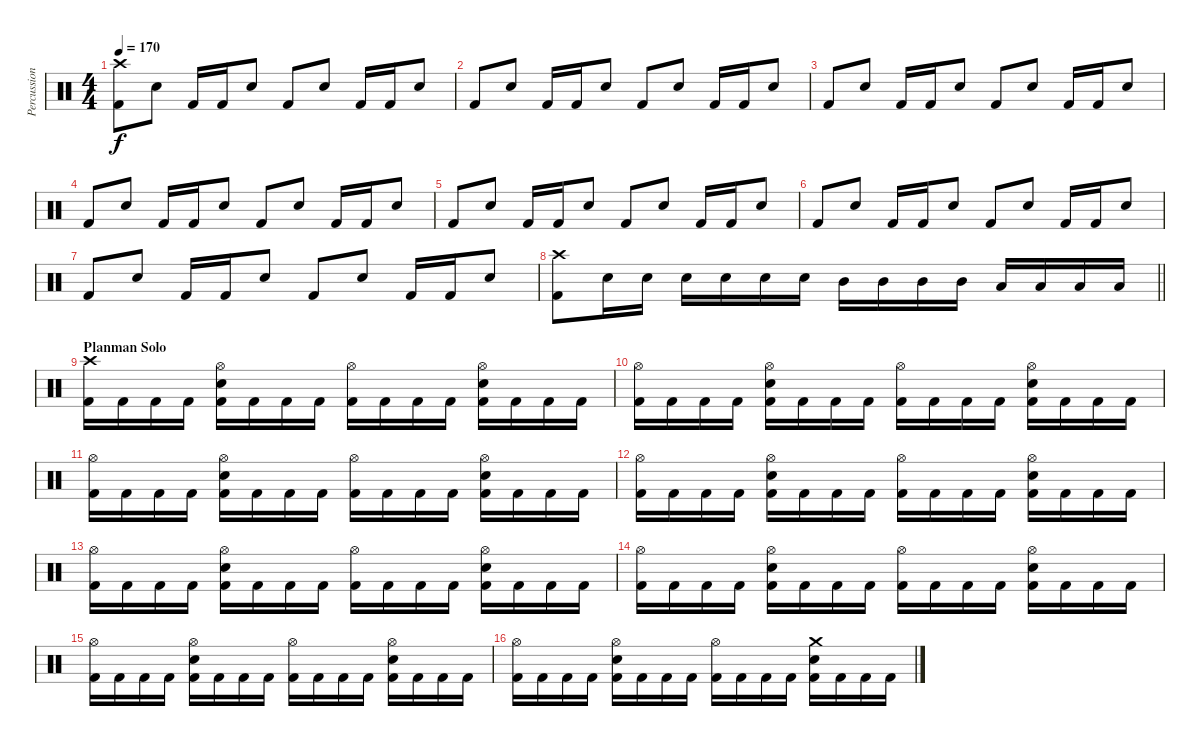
\track ("Percussions" "Percussion") {instrument percussion}
\staff {score}
\articulation defaults
\ts (4 4)
\tempo 170
\clef neutral
\ks c
("Crash high (hit)" "Kick (hit) 2").8{dy f} "Electric Snare (hit)".8 "Kick (hit) 2".16 "Kick (hit) 2".16 "Electric Snare (hit)".8 "Kick (hit) 2".8 "Electric Snare (hit)".8 "Kick (hit) 2".16 "Kick (hit) 2".16 "Electric Snare (hit)".8 |
"Kick (hit) 2".8 "Electric Snare (hit)".8 "Kick (hit) 2".16 "Kick (hit) 2".16 "Electric Snare (hit)".8 "Kick (hit) 2".8 "Electric Snare (hit)".8 "Kick (hit) 2".16 "Kick (hit) 2".16 "Electric Snare (hit)".8 |
"Kick (hit) 2".8 "Electric Snare (hit)".8 "Kick (hit) 2".16 "Kick (hit) 2".16 "Electric Snare (hit)".8 "Kick (hit) 2".8 "Electric Snare (hit)".8 "Kick (hit) 2".16 "Kick (hit) 2".16 "Electric Snare (hit)".8 |
"Kick (hit) 2".8 "Electric Snare (hit)".8 "Kick (hit) 2".16 "Kick (hit) 2".16 "Electric Snare (hit)".8 "Kick (hit) 2".8 "Electric Snare (hit)".8 "Kick (hit) 2".16 "Kick (hit) 2".16 "Electric Snare (hit)".8 |
"Kick (hit) 2".8 "Electric Snare (hit)".8 "Kick (hit) 2".16 "Kick (hit) 2".16 "Electric Snare (hit)".8 "Kick (hit) 2".8 "Electric Snare (hit)".8 "Kick (hit) 2".16 "Kick (hit) 2".16 "Electric Snare (hit)".8 |
"Kick (hit) 2".8 "Electric Snare (hit)".8 "Kick (hit) 2".16 "Kick (hit) 2".16 "Electric Snare (hit)".8 "Kick (hit) 2".8 "Electric Snare (hit)".8 "Kick (hit) 2".16 "Kick (hit) 2".16 "Electric Snare (hit)".8 |
"Kick (hit) 2".8 "Electric Snare (hit)".8 "Kick (hit) 2".16 "Kick (hit) 2".16 "Electric Snare (hit)".8 "Kick (hit) 2".8 "Electric Snare (hit)".8 "Kick (hit) 2".16 "Kick (hit) 2".16 "Electric Snare (hit)".8 |
\barLineRight lightlight
("Crash high (hit)" "Kick (hit) 2").8 "Electric Snare (hit)".16 "Electric Snare (hit)".16 "Electric Snare (hit)".16 "Electric Snare (hit)".16 "Electric Snare (hit)".16 "Electric Snare (hit)".16 "Mid Tom (hit)".16 "Mid Tom (hit)".16 "Mid Tom (hit)".16 "Mid Tom (hit)".16 "Low Tom (hit)".16 "Low Tom (hit)".16 "Low Tom (hit)".16 "Low Tom (hit)".16 |
\section ("" "Planman Solo")
("Crash high (hit)" "Kick (hit) 2").16 "Kick (hit) 2".16 "Kick (hit) 2".16 "Kick (hit) 2".16 ("Hi-Hat (open)" "Electric Snare (hit)" "Kick (hit) 2").16 "Kick (hit) 2".16 "Kick (hit) 2".16 "Kick (hit) 2".16 ("Hi-Hat (open)" "Kick (hit) 2").16 "Kick (hit) 2".16 "Kick (hit) 2".16 "Kick (hit) 2".16 ("Hi-Hat (open)" "Electric Snare (hit)" "Kick (hit) 2").16 "Kick (hit) 2".16 "Kick (hit) 2".16 "Kick (hit) 2".16 |
("Hi-Hat (open)" "Kick (hit) 2").16 "Kick (hit) 2".16 "Kick (hit) 2".16 "Kick (hit) 2".16 ("Hi-Hat (open)" "Electric Snare (hit)" "Kick (hit) 2").16 "Kick (hit) 2".16 "Kick (hit) 2".16 "Kick (hit) 2".16 ("Hi-Hat (open)" "Kick (hit) 2").16 "Kick (hit) 2".16 "Kick (hit) 2".16 "Kick (hit) 2".16 ("Hi-Hat (open)" "Electric Snare (hit)" "Kick (hit) 2").16 "Kick (hit) 2".16 "Kick (hit) 2".16 "Kick (hit) 2".16 |
("Hi-Hat (open)" "Kick (hit) 2").16 "Kick (hit) 2".16 "Kick (hit) 2".16 "Kick (hit) 2".16 ("Hi-Hat (open)" "Electric Snare (hit)" "Kick (hit) 2").16 "Kick (hit) 2".16 "Kick (hit) 2".16 "Kick (hit) 2".16 ("Hi-Hat (open)" "Kick (hit) 2").16 "Kick (hit) 2".16 "Kick (hit) 2".16 "Kick (hit) 2".16 ("Hi-Hat (open)" "Electric Snare (hit)" "Kick (hit) 2").16 "Kick (hit) 2".16 "Kick (hit) 2".16 "Kick (hit) 2".16 |
("Hi-Hat (open)" "Kick (hit) 2").16 "Kick (hit) 2".16 "Kick (hit) 2".16 "Kick (hit) 2".16 ("Hi-Hat (open)" "Electric Snare (hit)" "Kick (hit) 2").16 "Kick (hit) 2".16 "Kick (hit) 2".16 "Kick (hit) 2".16 ("Hi-Hat (open)" "Kick (hit) 2").16 "Kick (hit) 2".16 "Kick (hit) 2".16 "Kick (hit) 2".16 ("Hi-Hat (open)" "Electric Snare (hit)" "Kick (hit) 2").16 "Kick (hit) 2".16 "Kick (hit) 2".16 "Kick (hit) 2".16 |
("Hi-Hat (open)" "Kick (hit) 2").16 "Kick (hit) 2".16 "Kick (hit) 2".16 "Kick (hit) 2".16 ("Hi-Hat (open)" "Electric Snare (hit)" "Kick (hit) 2").16 "Kick (hit) 2".16 "Kick (hit) 2".16 "Kick (hit) 2".16 ("Hi-Hat (open)" "Kick (hit) 2").16 "Kick (hit) 2".16 "Kick (hit) 2".16 "Kick (hit) 2".16 ("Hi-Hat (open)" "Electric Snare (hit)" "Kick (hit) 2").16 "Kick (hit) 2".16 "Kick (hit) 2".16 "Kick (hit) 2".16 |
("Hi-Hat (open)" "Kick (hit) 2").16 "Kick (hit) 2".16 "Kick (hit) 2".16 "Kick (hit) 2".16 ("Hi-Hat (open)" "Electric Snare (hit)" "Kick (hit) 2").16 "Kick (hit) 2".16 "Kick (hit) 2".16 "Kick (hit) 2".16 ("Hi-Hat (open)" "Kick (hit) 2").16 "Kick (hit) 2".16 "Kick (hit) 2".16 "Kick (hit) 2".16 ("Hi-Hat (open)" "Electric Snare (hit)" "Kick (hit) 2").16 "Kick (hit) 2".16 "Kick (hit) 2".16 "Kick (hit) 2".16 |
("Hi-Hat (open)" "Kick (hit) 2").16 "Kick (hit) 2".16 "Kick (hit) 2".16 "Kick (hit) 2".16 ("Hi-Hat (open)" "Electric Snare (hit)" "Kick (hit) 2").16 "Kick (hit) 2".16 "Kick (hit) 2".16 "Kick (hit) 2".16 ("Hi-Hat (open)" "Kick (hit) 2").16 "Kick (hit) 2".16 "Kick (hit) 2".16 "Kick (hit) 2".16 ("Hi-Hat (open)" "Electric Snare (hit)" "Kick (hit) 2").16 "Kick (hit) 2".16 "Kick (hit) 2".16 "Kick (hit) 2".16 |
("Hi-Hat (open)" "Kick (hit) 2").16 "Kick (hit) 2".16 "Kick (hit) 2".16 "Kick (hit) 2".16 ("Hi-Hat (open)" "Electric Snare (hit)" "Kick (hit) 2").16 "Kick (hit) 2".16 "Kick (hit) 2".16 "Kick (hit) 2".16 ("Hi-Hat (open)" "Kick (hit) 2").16 "Kick (hit) 2".16 "Kick (hit) 2".16 "Kick (hit) 2".16 ("Crash medium (hit)" "Electric Snare (hit)" "Kick (hit) 2").16 "Kick (hit) 2".16 "Kick (hit) 2".16 "Kick (hit) 2".16
